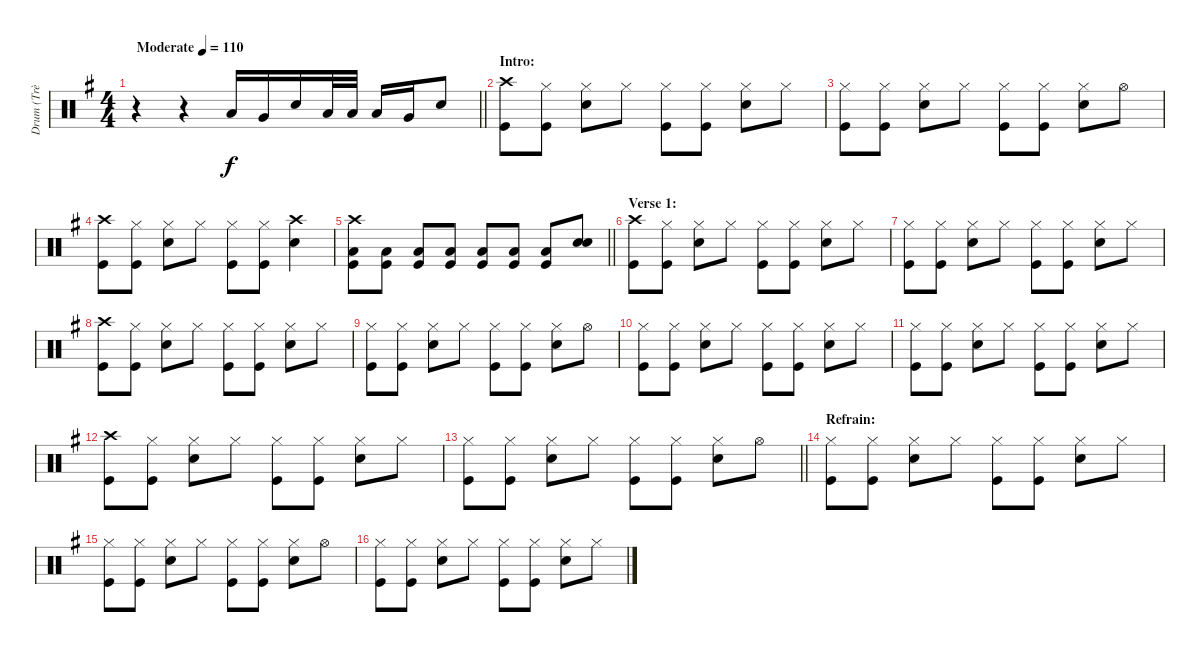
\track ("Drum (Trè Cool)" "Drum (Trè ") {instrument percussion}
\staff {score}
\articulation defaults
\ts (4 4)
\tempo (110 "Moderate")
\clef neutral
\barLineRight lightlight
\ks g
r.4{dy f} r.4 "Low Tom (hit)".16 "Very Low Tom (hit)".16 "Snare (hit) 2".16 "Low Tom (hit)".32 "Low Tom (hit)".32 "Low Tom (hit)".16 "Very Low Tom (hit)".16 "Snare (hit) 2".8 |
\section ("" "Intro:")
("Crash high (hit)" "Kick (hit)").8 ("Kick (hit)" "Hi-Hat (closed)").8 ("Hi-Hat (closed)" "Snare (hit) 2").8 "Hi-Hat (closed)".8 ("Hi-Hat (closed)" "Kick (hit)").8 ("Hi-Hat (closed)" "Kick (hit)").8 ("Hi-Hat (closed)" "Snare (hit) 2").8 "Hi-Hat (closed)".8 |
("Hi-Hat (closed)" "Kick (hit)").8 ("Hi-Hat (closed)" "Kick (hit)").8 ("Hi-Hat (closed)" "Snare (hit) 2").8 "Hi-Hat (closed)".8 ("Hi-Hat (closed)" "Kick (hit)").8 ("Hi-Hat (closed)" "Kick (hit)").8 ("Hi-Hat (closed)" "Snare (hit) 2").8 "Hi-Hat (open)".8 |
("Crash high (hit)" "Kick (hit)").8 ("Kick (hit)" "Hi-Hat (closed)").8 ("Hi-Hat (closed)" "Snare (hit) 2").8 "Hi-Hat (closed)".8 ("Hi-Hat (closed)" "Kick (hit)").8 ("Hi-Hat (closed)" "Kick (hit)").8 ("Snare (hit) 2" "Crash high (hit)").4 |
\barLineRight lightlight
("Low Floor Tom (hit)" "Kick (hit)" "Crash high (hit)").8 ("Kick (hit)" "Low Floor Tom (hit)").8 ("Low Floor Tom (hit)" "Kick (hit)").8 ("Low Floor Tom (hit)" "Kick (hit)").8 ("Low Floor Tom (hit)" "Kick (hit)").8 ("Low Floor Tom (hit)" "Kick (hit)").8 ("Low Floor Tom (hit)" "Kick (hit)").8 ("Snare (hit) 2" "Snare (hit) 2").8 |
\section ("" "Verse 1:")
("Crash high (hit)" "Kick (hit)").8 ("Hi-Hat (closed)" "Kick (hit)").8 ("Snare (hit) 2" "Hi-Hat (closed)").8 "Hi-Hat (closed)".8 ("Hi-Hat (closed)" "Kick (hit)").8 ("Hi-Hat (closed)" "Kick (hit)").8 ("Hi-Hat (closed)" "Snare (hit) 2").8 "Hi-Hat (closed)".8 |
("Hi-Hat (closed)" "Kick (hit)").8 ("Hi-Hat (closed)" "Kick (hit)").8 ("Hi-Hat (closed)" "Snare (hit) 2").8 "Hi-Hat (closed)".8 ("Hi-Hat (closed)" "Kick (hit)").8 ("Hi-Hat (closed)" "Kick (hit)").8 ("Hi-Hat (closed)" "Snare (hit) 2").8 "Hi-Hat (closed)".8 |
("Crash high (hit)" "Kick (hit)").8 ("Hi-Hat (closed)" "Kick (hit)").8 ("Hi-Hat (closed)" "Snare (hit) 2").8 "Hi-Hat (closed)".8 ("Hi-Hat (closed)" "Kick (hit)").8 ("Hi-Hat (closed)" "Kick (hit)").8 ("Hi-Hat (closed)" "Snare (hit) 2").8 "Hi-Hat (closed)".8 |
("Hi-Hat (closed)" "Kick (hit)").8 ("Hi-Hat (closed)" "Kick (hit)").8 ("Hi-Hat (closed)" "Snare (hit) 2").8 "Hi-Hat (closed)".8 ("Hi-Hat (closed)" "Kick (hit)").8 ("Hi-Hat (closed)" "Kick (hit)").8 ("Hi-Hat (closed)" "Snare (hit) 2").8 "Hi-Hat (open)".8 |
("Hi-Hat (closed)" "Kick (hit)").8 ("Hi-Hat (closed)" "Kick (hit)").8 ("Snare (hit) 2" "Hi-Hat (closed)").8 "Hi-Hat (closed)".8 ("Hi-Hat (closed)" "Kick (hit)").8 ("Hi-Hat (closed)" "Kick (hit)").8 ("Hi-Hat (closed)" "Snare (hit) 2").8 "Hi-Hat (closed)".8 |
("Hi-Hat (closed)" "Kick (hit)").8 ("Hi-Hat (closed)" "Kick (hit)").8 ("Hi-Hat (closed)" "Snare (hit) 2").8 "Hi-Hat (closed)".8 ("Hi-Hat (closed)" "Kick (hit)").8 ("Hi-Hat (closed)" "Kick (hit)").8 ("Hi-Hat (closed)" "Snare (hit) 2").8 "Hi-Hat (closed)".8 |
("Crash high (hit)" "Kick (hit)").8 ("Hi-Hat (closed)" "Kick (hit)").8 ("Hi-Hat (closed)" "Snare (hit) 2").8 "Hi-Hat (closed)".8 ("Hi-Hat (closed)" "Kick (hit)").8 ("Hi-Hat (closed)" "Kick (hit)").8 ("Hi-Hat (closed)" "Snare (hit) 2").8 "Hi-Hat (closed)".8 |
\barLineRight lightlight
("Hi-Hat (closed)" "Kick (hit)").8 ("Hi-Hat (closed)" "Kick (hit)").8 ("Hi-Hat (closed)" "Snare (hit) 2").8 "Hi-Hat (closed)".8 ("Hi-Hat (closed)" "Kick (hit)").8 ("Hi-Hat (closed)" "Kick (hit)").8 ("Hi-Hat (closed)" "Snare (hit) 2").8 "Hi-Hat (open)".8 |
\section ("" "Refrain:")
("Hi-Hat (closed)" "Kick (hit)").8 ("Hi-Hat (closed)" "Kick (hit)").8 ("Hi-Hat (closed)" "Snare (hit) 2").8 "Hi-Hat (closed)".8 ("Hi-Hat (closed)" "Kick (hit)").8 ("Hi-Hat (closed)" "Kick (hit)").8 ("Hi-Hat (closed)" "Snare (hit) 2").8 "Hi-Hat (closed)".8 |
("Hi-Hat (closed)" "Kick (hit)").8 ("Kick (hit)" "Hi-Hat (closed)").8 ("Hi-Hat (closed)" "Snare (hit) 2").8 "Hi-Hat (closed)".8 ("Hi-Hat (closed)" "Kick (hit)").8 ("Hi-Hat (closed)" "Kick (hit)").8 ("Hi-Hat (closed)" "Snare (hit) 2").8 "Hi-Hat (open)".8 |
("Hi-Hat (closed)" "Kick (hit)").8 ("Hi-Hat (closed)" "Kick (hit)").8 ("Hi-Hat (closed)" "Snare (hit) 2").8 "Hi-Hat (closed)".8 ("Hi-Hat (closed)" "Kick (hit)").8 ("Hi-Hat (closed)" "Kick (hit)").8 ("Hi-Hat (closed)" "Snare (hit) 2").8 "Hi-Hat (closed)".8
